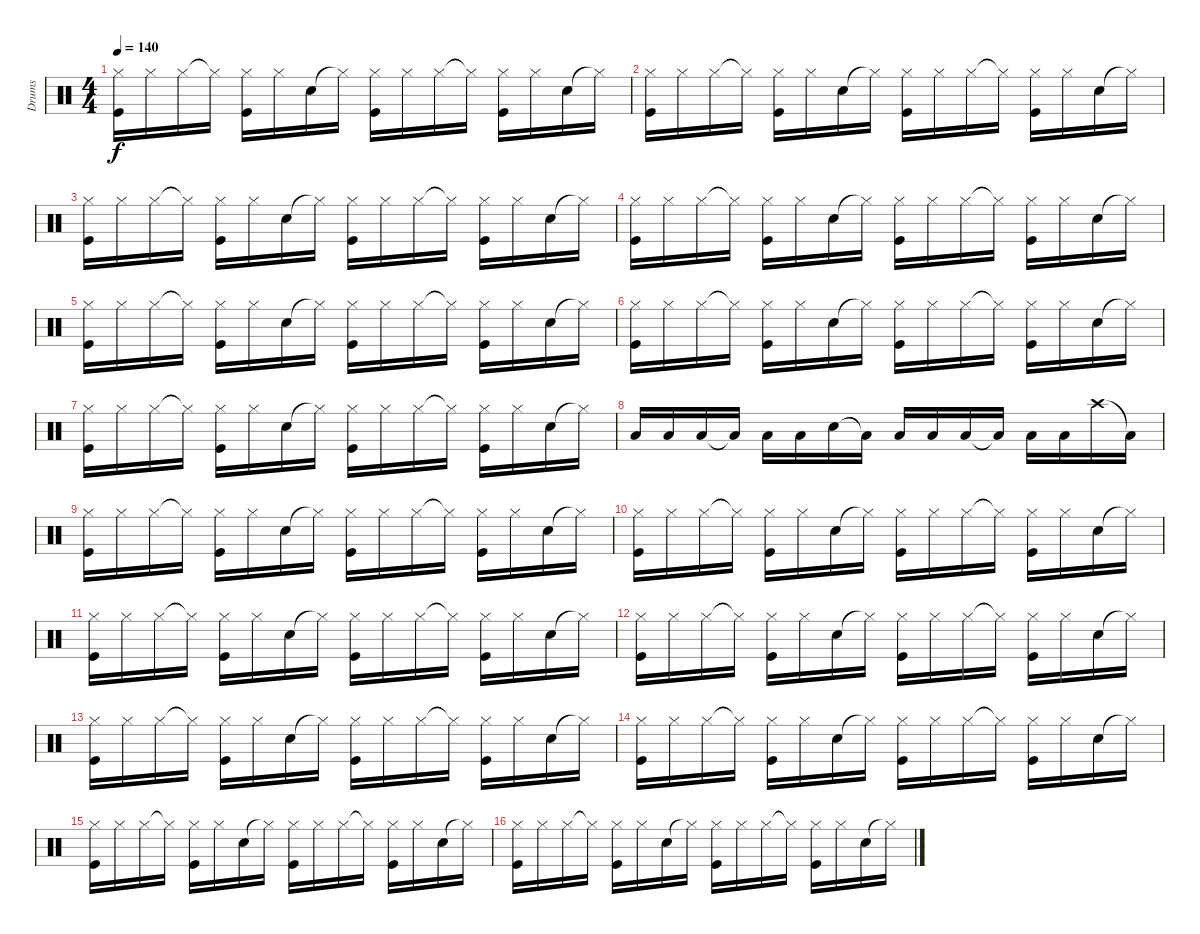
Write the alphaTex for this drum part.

\track ("Drums" "Drums") {instrument percussion}
\staff {score}
\articulation defaults
\ts (4 4)
\tempo 140
\clef neutral
\ks c
("Hi-Hat (closed)" "Kick (hit)").16{dy f} "Hi-Hat (closed)".16 "Hi-Hat (closed)".16 "Hi-Hat (closed)"{t}.16 ("Hi-Hat (closed)" "Kick (hit)").16 "Hi-Hat (closed)".16 "Snare (hit) 2".16 "Hi-Hat (closed)"{t}.16 ("Hi-Hat (closed)" "Kick (hit)").16 "Hi-Hat (closed)".16 "Hi-Hat (closed)".16 "Hi-Hat (closed)"{t}.16 ("Hi-Hat (closed)" "Kick (hit)").16 "Hi-Hat (closed)".16 "Snare (hit) 2".16 "Hi-Hat (closed)"{t}.16 |
("Hi-Hat (closed)" "Kick (hit)").16 "Hi-Hat (closed)".16 "Hi-Hat (closed)".16 "Hi-Hat (closed)"{t}.16 ("Hi-Hat (closed)" "Kick (hit)").16 "Hi-Hat (closed)".16 "Snare (hit) 2".16 "Hi-Hat (closed)"{t}.16 ("Hi-Hat (closed)" "Kick (hit)").16 "Hi-Hat (closed)".16 "Hi-Hat (closed)".16 "Hi-Hat (closed)"{t}.16 ("Hi-Hat (closed)" "Kick (hit)").16 "Hi-Hat (closed)".16 "Snare (hit) 2".16 "Hi-Hat (closed)"{t}.16 |
("Hi-Hat (closed)" "Kick (hit)").16 "Hi-Hat (closed)".16 "Hi-Hat (closed)".16 "Hi-Hat (closed)"{t}.16 ("Hi-Hat (closed)" "Kick (hit)").16 "Hi-Hat (closed)".16 "Snare (hit) 2".16 "Hi-Hat (closed)"{t}.16 ("Hi-Hat (closed)" "Kick (hit)").16 "Hi-Hat (closed)".16 "Hi-Hat (closed)".16 "Hi-Hat (closed)"{t}.16 ("Hi-Hat (closed)" "Kick (hit)").16 "Hi-Hat (closed)".16 "Snare (hit) 2".16 "Hi-Hat (closed)"{t}.16 |
("Hi-Hat (closed)" "Kick (hit)").16 "Hi-Hat (closed)".16 "Hi-Hat (closed)".16 "Hi-Hat (closed)"{t}.16 ("Hi-Hat (closed)" "Kick (hit)").16 "Hi-Hat (closed)".16 "Snare (hit) 2".16 "Hi-Hat (closed)"{t}.16 ("Hi-Hat (closed)" "Kick (hit)").16 "Hi-Hat (closed)".16 "Hi-Hat (closed)".16 "Hi-Hat (closed)"{t}.16 ("Hi-Hat (closed)" "Kick (hit)").16 "Hi-Hat (closed)".16 "Snare (hit) 2".16 "Hi-Hat (closed)"{t}.16 |
("Hi-Hat (closed)" "Kick (hit)").16 "Hi-Hat (closed)".16 "Hi-Hat (closed)".16 "Hi-Hat (closed)"{t}.16 ("Hi-Hat (closed)" "Kick (hit)").16 "Hi-Hat (closed)".16 "Snare (hit) 2".16 "Hi-Hat (closed)"{t}.16 ("Hi-Hat (closed)" "Kick (hit)").16 "Hi-Hat (closed)".16 "Hi-Hat (closed)".16 "Hi-Hat (closed)"{t}.16 ("Hi-Hat (closed)" "Kick (hit)").16 "Hi-Hat (closed)".16 "Snare (hit) 2".16 "Hi-Hat (closed)"{t}.16 |
("Hi-Hat (closed)" "Kick (hit)").16 "Hi-Hat (closed)".16 "Hi-Hat (closed)".16 "Hi-Hat (closed)"{t}.16 ("Hi-Hat (closed)" "Kick (hit)").16 "Hi-Hat (closed)".16 "Snare (hit) 2".16 "Hi-Hat (closed)"{t}.16 ("Hi-Hat (closed)" "Kick (hit)").16 "Hi-Hat (closed)".16 "Hi-Hat (closed)".16 "Hi-Hat (closed)"{t}.16 ("Hi-Hat (closed)" "Kick (hit)").16 "Hi-Hat (closed)".16 "Snare (hit) 2".16 "Hi-Hat (closed)"{t}.16 |
("Hi-Hat (closed)" "Kick (hit)").16 "Hi-Hat (closed)".16 "Hi-Hat (closed)".16 "Hi-Hat (closed)"{t}.16 ("Hi-Hat (closed)" "Kick (hit)").16 "Hi-Hat (closed)".16 "Snare (hit) 2".16 "Hi-Hat (closed)"{t}.16 ("Hi-Hat (closed)" "Kick (hit)").16 "Hi-Hat (closed)".16 "Hi-Hat (closed)".16 "Hi-Hat (closed)"{t}.16 ("Hi-Hat (closed)" "Kick (hit)").16 "Hi-Hat (closed)".16 "Snare (hit) 2".16 "Hi-Hat (closed)"{t}.16 |
"Low Tom (hit)".16 "Low Tom (hit)".16 "Low Tom (hit)".16 "Low Tom (hit)"{t}.16 "Low Tom (hit)".16 "Low Tom (hit)".16 "Snare (hit) 2".16 "Low Tom (hit)"{t}.16 "Low Tom (hit)".16 "Low Tom (hit)".16 "Low Tom (hit)".16 "Low Tom (hit)"{t}.16 "Low Tom (hit)".16 "Low Tom (hit)".16 "Crash high (hit)".16 "Low Tom (hit)"{t}.16 |
("Hi-Hat (closed)" "Kick (hit)").16 "Hi-Hat (closed)".16 "Hi-Hat (closed)".16 "Hi-Hat (closed)"{t}.16 ("Hi-Hat (closed)" "Kick (hit)").16 "Hi-Hat (closed)".16 "Snare (hit) 2".16 "Hi-Hat (closed)"{t}.16 ("Hi-Hat (closed)" "Kick (hit)").16 "Hi-Hat (closed)".16 "Hi-Hat (closed)".16 "Hi-Hat (closed)"{t}.16 ("Hi-Hat (closed)" "Kick (hit)").16 "Hi-Hat (closed)".16 "Snare (hit) 2".16 "Hi-Hat (closed)"{t}.16 |
("Hi-Hat (closed)" "Kick (hit)").16 "Hi-Hat (closed)".16 "Hi-Hat (closed)".16 "Hi-Hat (closed)"{t}.16 ("Hi-Hat (closed)" "Kick (hit)").16 "Hi-Hat (closed)".16 "Snare (hit) 2".16 "Hi-Hat (closed)"{t}.16 ("Hi-Hat (closed)" "Kick (hit)").16 "Hi-Hat (closed)".16 "Hi-Hat (closed)".16 "Hi-Hat (closed)"{t}.16 ("Hi-Hat (closed)" "Kick (hit)").16 "Hi-Hat (closed)".16 "Snare (hit) 2".16 "Hi-Hat (closed)"{t}.16 |
("Hi-Hat (closed)" "Kick (hit)").16 "Hi-Hat (closed)".16 "Hi-Hat (closed)".16 "Hi-Hat (closed)"{t}.16 ("Hi-Hat (closed)" "Kick (hit)").16 "Hi-Hat (closed)".16 "Snare (hit) 2".16 "Hi-Hat (closed)"{t}.16 ("Hi-Hat (closed)" "Kick (hit)").16 "Hi-Hat (closed)".16 "Hi-Hat (closed)".16 "Hi-Hat (closed)"{t}.16 ("Hi-Hat (closed)" "Kick (hit)").16 "Hi-Hat (closed)".16 "Snare (hit) 2".16 "Hi-Hat (closed)"{t}.16 |
("Hi-Hat (closed)" "Kick (hit)").16 "Hi-Hat (closed)".16 "Hi-Hat (closed)".16 "Hi-Hat (closed)"{t}.16 ("Hi-Hat (closed)" "Kick (hit)").16 "Hi-Hat (closed)".16 "Snare (hit) 2".16 "Hi-Hat (closed)"{t}.16 ("Hi-Hat (closed)" "Kick (hit)").16 "Hi-Hat (closed)".16 "Hi-Hat (closed)".16 "Hi-Hat (closed)"{t}.16 ("Hi-Hat (closed)" "Kick (hit)").16 "Hi-Hat (closed)".16 "Snare (hit) 2".16 "Hi-Hat (closed)"{t}.16 |
("Hi-Hat (closed)" "Kick (hit)").16 "Hi-Hat (closed)".16 "Hi-Hat (closed)".16 "Hi-Hat (closed)"{t}.16 ("Hi-Hat (closed)" "Kick (hit)").16 "Hi-Hat (closed)".16 "Snare (hit) 2".16 "Hi-Hat (closed)"{t}.16 ("Hi-Hat (closed)" "Kick (hit)").16 "Hi-Hat (closed)".16 "Hi-Hat (closed)".16 "Hi-Hat (closed)"{t}.16 ("Hi-Hat (closed)" "Kick (hit)").16 "Hi-Hat (closed)".16 "Snare (hit) 2".16 "Hi-Hat (closed)"{t}.16 |
("Hi-Hat (closed)" "Kick (hit)").16 "Hi-Hat (closed)".16 "Hi-Hat (closed)".16 "Hi-Hat (closed)"{t}.16 ("Hi-Hat (closed)" "Kick (hit)").16 "Hi-Hat (closed)".16 "Snare (hit) 2".16 "Hi-Hat (closed)"{t}.16 ("Hi-Hat (closed)" "Kick (hit)").16 "Hi-Hat (closed)".16 "Hi-Hat (closed)".16 "Hi-Hat (closed)"{t}.16 ("Hi-Hat (closed)" "Kick (hit)").16 "Hi-Hat (closed)".16 "Snare (hit) 2".16 "Hi-Hat (closed)"{t}.16 |
("Hi-Hat (closed)" "Kick (hit)").16 "Hi-Hat (closed)".16 "Hi-Hat (closed)".16 "Hi-Hat (closed)"{t}.16 ("Hi-Hat (closed)" "Kick (hit)").16 "Hi-Hat (closed)".16 "Snare (hit) 2".16 "Hi-Hat (closed)"{t}.16 ("Hi-Hat (closed)" "Kick (hit)").16 "Hi-Hat (closed)".16 "Hi-Hat (closed)".16 "Hi-Hat (closed)"{t}.16 ("Hi-Hat (closed)" "Kick (hit)").16 "Hi-Hat (closed)".16 "Snare (hit) 2".16 "Hi-Hat (closed)"{t}.16 |
("Hi-Hat (closed)" "Kick (hit)").16 "Hi-Hat (closed)".16 "Hi-Hat (closed)".16 "Hi-Hat (closed)"{t}.16 ("Hi-Hat (closed)" "Kick (hit)").16 "Hi-Hat (closed)".16 "Snare (hit) 2".16 "Hi-Hat (closed)"{t}.16 ("Hi-Hat (closed)" "Kick (hit)").16 "Hi-Hat (closed)".16 "Hi-Hat (closed)".16 "Hi-Hat (closed)"{t}.16 ("Hi-Hat (closed)" "Kick (hit)").16 "Hi-Hat (closed)".16 "Snare (hit) 2".16 "Hi-Hat (closed)"{t}.16
